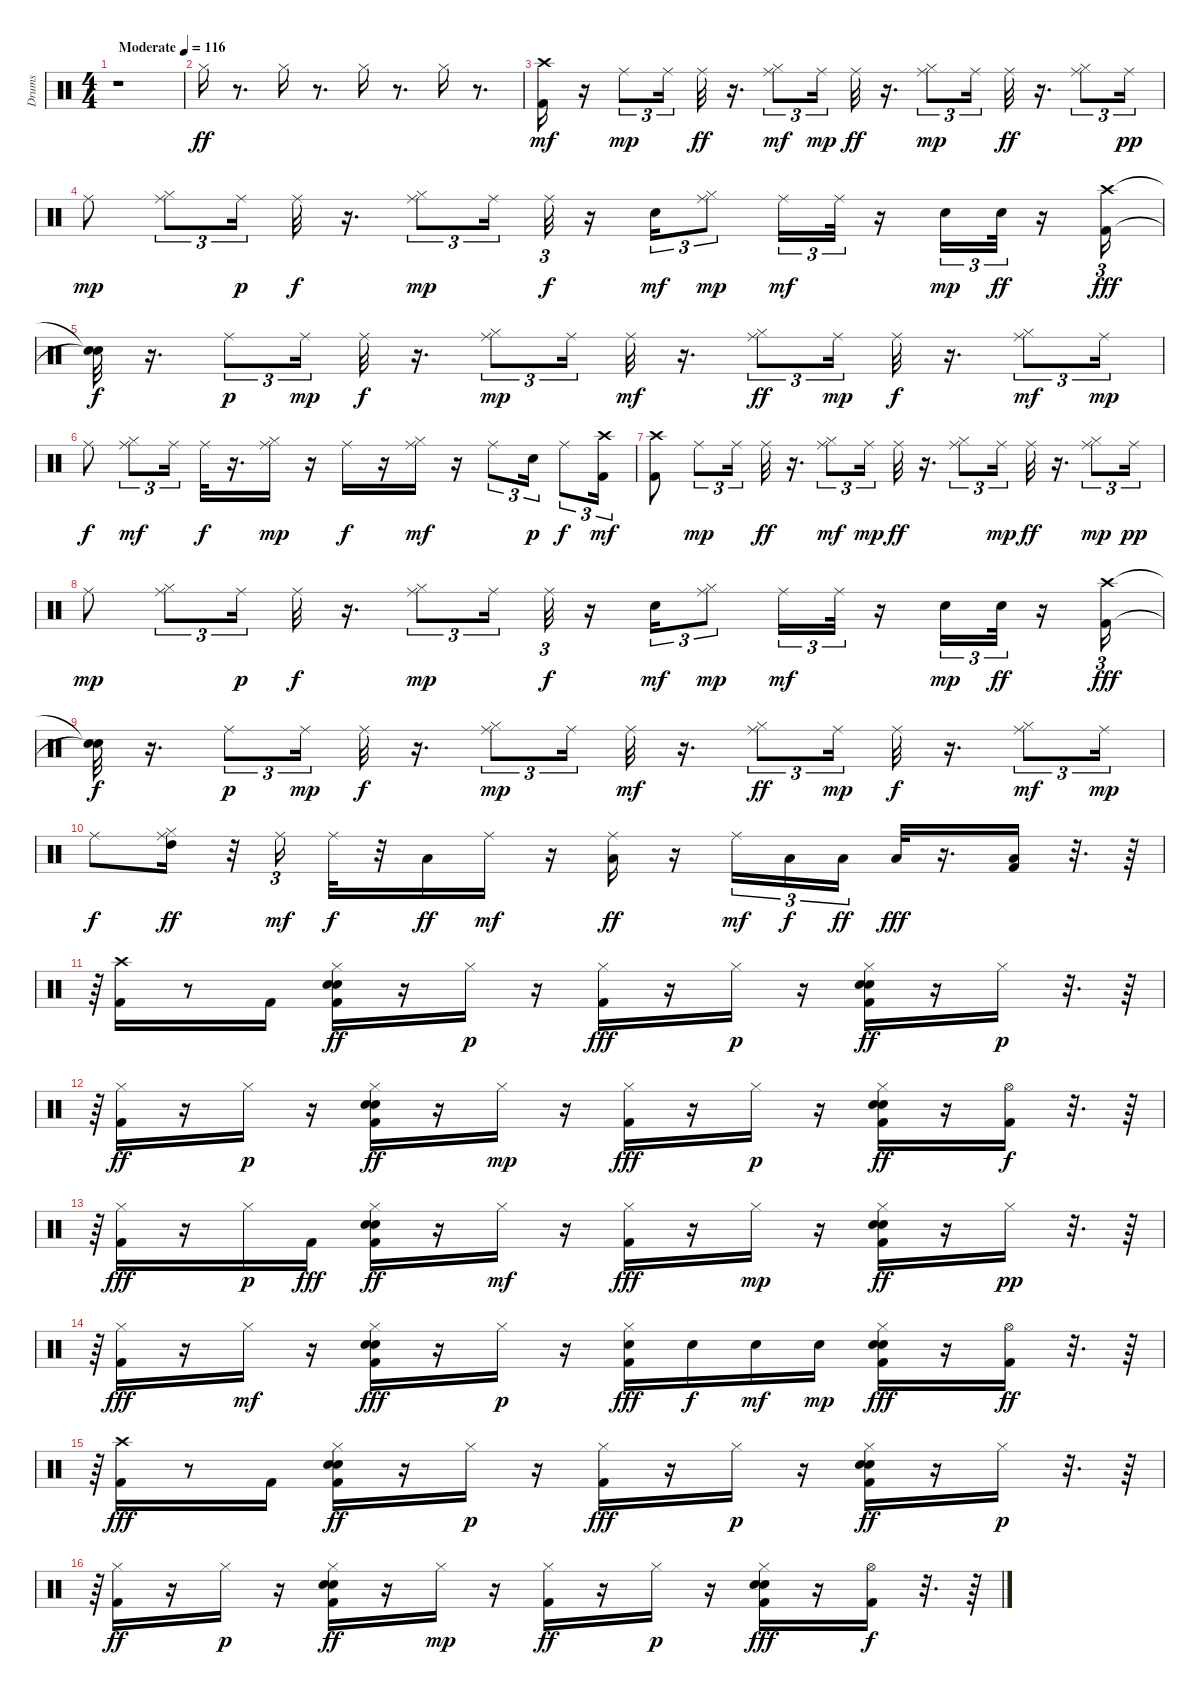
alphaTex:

\track ("Drums" "Drums") {instrument percussion}
\staff {score}
\articulation defaults
\ts (4 4)
\tempo (116 "Moderate")
\clef neutral
\ks c
r.1{dy ff} |
"Hi-Hat (closed)".16 r.8{d} "Hi-Hat (closed)".16 r.8{d} "Hi-Hat (closed)".16 r.8{d} "Hi-Hat (closed)".16 r.8{d} |
("Kick (hit) 2" "Crash high (hit)").16{dy mf} r.16 "Ride (middle)".8{tu (3 2) dy mp} "Ride (middle)".16{tu (3 2)} "Ride (middle)".32{dy ff} r.16{d} ("Hi-Hat (closed)" "Ride (middle)").8{tu (3 2) dy mf} "Ride (middle)".16{tu (3 2) dy mp} "Ride (middle)".32{dy ff} r.16{d} ("Ride (middle)" "Hi-Hat (closed)").8{tu (3 2) dy mp} "Ride (middle)".16{tu (3 2)} "Ride (middle)".32{dy ff} r.16{d} ("Hi-Hat (closed)" "Ride (middle)").8{tu (3 2)} "Ride (middle)".16{tu (3 2) dy pp} |
"Ride (middle)".8{dy mp} ("Ride (middle)" "Hi-Hat (closed)").8{tu (3 2)} "Ride (middle)".16{tu (3 2) dy p} "Ride (middle)".32{dy f} r.16{d} ("Hi-Hat (closed)" "Ride (middle)").8{tu (3 2) dy mp} "Ride (middle)".16{tu (3 2)} "Ride (middle)".32{tu (3 2) dy f} r.16 "Snare (hit) 2".16{tu (3 2) dy mf} ("Hi-Hat (closed)" "Ride (middle)").8{tu (3 2) dy mp} "Ride (middle)".16{tu (3 2) dy mf} "Ride (middle)".32{tu (3 2)} r.16 "Snare (hit) 2".16{tu (3 2) dy mp} "Snare (hit) 2".32{tu (3 2) dy ff} r.16 ("Kick (hit) 2" "Crash high (hit)").16{tu (3 2) dy fff} |
("Snare (hit)"{t} "Snare (hit)"{t}).32{dy f} r.16{d} "Ride (middle)".8{tu (3 2) dy p} "Ride (middle)".16{tu (3 2) dy mp} "Ride (middle)".32{dy f} r.16{d} ("Ride (middle)" "Hi-Hat (closed)").8{tu (3 2) dy mp} "Ride (middle)".16{tu (3 2)} "Ride (middle)".32{dy mf} r.16{d} ("Hi-Hat (closed)" "Ride (middle)").8{tu (3 2) dy ff} "Ride (middle)".16{tu (3 2) dy mp} "Ride (middle)".32{dy f} r.16{d} ("Ride (middle)" "Hi-Hat (closed)").8{tu (3 2) dy mf} "Ride (middle)".16{tu (3 2) dy mp} |
"Ride (middle)".8{dy f} ("Ride (middle)" "Hi-Hat (closed)").8{tu (3 2) dy mf} "Ride (middle)".16{tu (3 2)} "Ride (middle)".32{dy f} r.16{d} ("Ride (middle)" "Hi-Hat (closed)").16{dy mp} r.16 "Ride (middle)".16{dy f} r.16 ("Hi-Hat (closed)" "Ride (middle)").16{dy mf} r.16 "Ride (middle)".8{tu (3 2)} "Snare (hit) 2".16{tu (3 2) dy p} "Ride (middle)".8{tu (3 2) dy f} ("Kick (hit) 2" "Crash high (hit)").16{tu (3 2) dy mf} |
("Kick (hit) 2" "Crash high (hit)").8 "Ride (middle)".8{tu (3 2) dy mp} "Ride (middle)".16{tu (3 2)} "Ride (middle)".32{dy ff} r.16{d} ("Ride (middle)" "Hi-Hat (closed)").8{tu (3 2) dy mf} "Ride (middle)".16{tu (3 2) dy mp} "Ride (middle)".32{dy ff} r.16{d} ("Hi-Hat (closed)" "Ride (middle)").8{tu (3 2)} "Ride (middle)".16{tu (3 2) dy mp} "Ride (middle)".32{dy ff} r.16{d} ("Ride (middle)" "Hi-Hat (closed)").8{tu (3 2) dy mp} "Ride (middle)".16{tu (3 2) dy pp} |
"Ride (middle)".8{dy mp} ("Hi-Hat (closed)" "Ride (middle)").8{tu (3 2)} "Ride (middle)".16{tu (3 2) dy p} "Ride (middle)".32{dy f} r.16{d} ("Ride (middle)" "Hi-Hat (closed)").8{tu (3 2) dy mp} "Ride (middle)".16{tu (3 2)} "Ride (middle)".32{tu (3 2) dy f} r.16 "Snare (hit) 2".16{tu (3 2) dy mf} ("Ride (middle)" "Hi-Hat (closed)").8{tu (3 2) dy mp} "Ride (middle)".16{tu (3 2) dy mf} "Ride (middle)".32{tu (3 2)} r.16 "Snare (hit) 2".16{tu (3 2) dy mp} "Snare (hit) 2".32{tu (3 2) dy ff} r.16 ("Kick (hit) 2" "Crash high (hit)").16{tu (3 2) dy fff} |
("Snare (hit)"{t} "Snare (hit)"{t}).32{dy f} r.16{d} "Ride (middle)".8{tu (3 2) dy p} "Ride (middle)".16{tu (3 2) dy mp} "Ride (middle)".32{dy f} r.16{d} ("Ride (middle)" "Hi-Hat (closed)").8{tu (3 2) dy mp} "Ride (middle)".16{tu (3 2)} "Ride (middle)".32{dy mf} r.16{d} ("Hi-Hat (closed)" "Ride (middle)").8{tu (3 2) dy ff} "Ride (middle)".16{tu (3 2) dy mp} "Ride (middle)".32{dy f} r.16{d} ("Ride (middle)" "Hi-Hat (closed)").8{tu (3 2) dy mf} "Ride (middle)".16{tu (3 2) dy mp} |
"Ride (middle)".8{dy f} ("Ride (middle)" "Hi-Hat (closed)" "High Tom (hit)").16{dy ff} r.32 "Ride (middle)".16{tu (3 2) dy mf} "Ride (middle)".32{dy f} r.32 "Low Tom (hit)".16{dy ff} "Ride (middle)".16{dy mf} r.16 ("Low Floor Tom (hit)" "Ride (middle)").16{dy ff} r.16 "Ride (middle)".16{tu (3 2) dy mf} "Low Floor Tom (hit)".16{tu (3 2) dy f} "Low Floor Tom (hit)".16{tu (3 2) dy ff} "Low Floor Tom (hit)".32{dy fff} r.16{d} ("Low Floor Tom (hit)" "Kick (hit) 2").16 r.32{d} r.64 |
r.64{tu (3 2)} ("Kick (hit) 2" "Crash high (hit)").16 r.8 "Kick (hit) 2".16 ("Snare (hit) 2" "Hi-Hat (closed)" "Kick (hit) 2" "Hand Clap (hit)").16{dy ff} r.16 "Hi-Hat (closed)".16{dy p} r.16 ("Kick (hit) 2" "Hi-Hat (closed)").16{dy fff} r.16 "Hi-Hat (closed)".16{dy p} r.16 ("Snare (hit) 2" "Kick (hit) 2" "Hi-Hat (closed)" "Hand Clap (hit)").16{dy ff} r.16 "Hi-Hat (closed)".16{dy p} r.32{d} r.64 |
r.64{tu (3 2)} ("Kick (hit) 2" "Hi-Hat (closed)").16{dy ff} r.16 "Hi-Hat (closed)".16{dy p} r.16 ("Kick (hit) 2" "Snare (hit) 2" "Hand Clap (hit)" "Hi-Hat (closed)").16{dy ff} r.16 "Hi-Hat (closed)".16{dy mp} r.16 ("Hi-Hat (closed)" "Kick (hit) 2").16{dy fff} r.16 "Hi-Hat (closed)".16{dy p} r.16 ("Snare (hit) 2" "Hi-Hat (closed)" "Kick (hit) 2" "Hand Clap (hit)").16{dy ff} r.16 ("Hi-Hat (open)" "Kick (hit) 2").16{dy f} r.32{d} r.64 |
r.64{tu (3 2)} ("Hi-Hat (closed)" "Kick (hit) 2").16{dy fff} r.16 "Hi-Hat (closed)".16{dy p} "Kick (hit) 2".16{dy fff} ("Kick (hit) 2" "Snare (hit) 2" "Hand Clap (hit)" "Hi-Hat (closed)").16{dy ff} r.16 "Hi-Hat (closed)".16{dy mf} r.16 ("Kick (hit) 2" "Hi-Hat (closed)").16{dy fff} r.16 "Hi-Hat (closed)".16{dy mp} r.16 ("Kick (hit) 2" "Snare (hit) 2" "Hand Clap (hit)" "Hi-Hat (closed)").16{dy ff} r.16 "Hi-Hat (closed)".16{dy pp} r.32{d} r.64 |
r.64{tu (3 2)} ("Hi-Hat (closed)" "Kick (hit) 2").16{dy fff} r.16 "Hi-Hat (closed)".16{dy mf} r.16 ("Snare (hit) 2" "Hand Clap (hit)" "Hi-Hat (closed)" "Kick (hit) 2").16{dy fff} r.16 "Hi-Hat (closed)".16{dy p} r.16 ("Hi-Hat (closed)" "Snare (hit) 2" "Kick (hit) 2").16{dy fff} "Snare (hit) 2".16{dy f} "Snare (hit) 2".16{dy mf} "Snare (hit) 2".16{dy mp} ("Kick (hit) 2" "Hand Clap (hit)" "Hi-Hat (closed)" "Snare (hit) 2").16{dy fff} r.16 ("Kick (hit) 2" "Hi-Hat (open)").16{dy ff} r.32{d} r.64 |
r.64{tu (3 2)} ("Kick (hit) 2" "Crash high (hit)").16{dy fff} r.8 "Kick (hit) 2".16 ("Snare (hit) 2" "Kick (hit) 2" "Hi-Hat (closed)" "Hand Clap (hit)").16{dy ff} r.16 "Hi-Hat (closed)".16{dy p} r.16 ("Hi-Hat (closed)" "Kick (hit) 2").16{dy fff} r.16 "Hi-Hat (closed)".16{dy p} r.16 ("Kick (hit) 2" "Snare (hit) 2" "Hand Clap (hit)" "Hi-Hat (closed)").16{dy ff} r.16 "Hi-Hat (closed)".16{dy p} r.32{d} r.64 |
r.64{tu (3 2)} ("Kick (hit) 2" "Hi-Hat (closed)").16{dy ff} r.16 "Hi-Hat (closed)".16{dy p} r.16 ("Hi-Hat (closed)" "Snare (hit) 2" "Kick (hit) 2" "Hand Clap (hit)").16{dy ff} r.16 "Hi-Hat (closed)".16{dy mp} r.16 ("Kick (hit) 2" "Hi-Hat (closed)").16{dy ff} r.16 "Hi-Hat (closed)".16{dy p} r.16 ("Hi-Hat (closed)" "Hand Clap (hit)" "Snare (hit) 2" "Kick (hit) 2").16{dy fff} r.16 ("Hi-Hat (open)" "Kick (hit) 2").16{dy f} r.32{d} r.64
